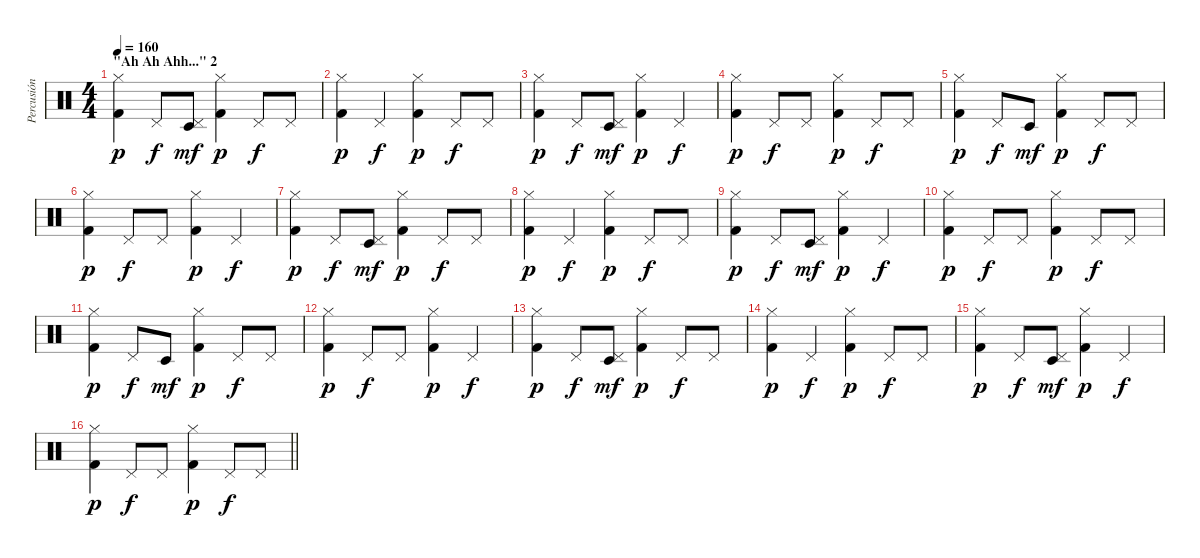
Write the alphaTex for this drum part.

\track ("Percusión" "Percusión") {instrument percussion}
\staff {score}
\articulation defaults
\ts (4 4)
\section ("" "\"Ah Ah Ahh...\" 2")
\tempo 160
\clef neutral
\ks c
("Kick (hit) 2" "Hi-Hat (closed)").4{dy p} "Pedal Hi-Hat (hit)".8{dy f} ("Timbale low (hit)" "Pedal Hi-Hat (hit)").8{dy mf} ("Kick (hit) 2" "Hi-Hat (closed)").4{dy p} "Pedal Hi-Hat (hit)".8{dy f} "Pedal Hi-Hat (hit)".8 |
("Kick (hit) 2" "Hi-Hat (closed)").4{dy p} "Pedal Hi-Hat (hit)".4{dy f} ("Kick (hit) 2" "Hi-Hat (closed)").4{dy p} "Pedal Hi-Hat (hit)".8{dy f} "Pedal Hi-Hat (hit)".8 |
("Kick (hit) 2" "Hi-Hat (closed)").4{dy p} "Pedal Hi-Hat (hit)".8{dy f} ("Timbale low (hit)" "Pedal Hi-Hat (hit)").8{dy mf} ("Kick (hit) 2" "Hi-Hat (closed)").4{dy p} "Pedal Hi-Hat (hit)".4{dy f} |
("Kick (hit) 2" "Hi-Hat (closed)").4{dy p} "Pedal Hi-Hat (hit)".8{dy f} "Pedal Hi-Hat (hit)".8 ("Kick (hit) 2" "Hi-Hat (closed)").4{dy p} "Pedal Hi-Hat (hit)".8{dy f} "Pedal Hi-Hat (hit)".8 |
("Kick (hit) 2" "Hi-Hat (closed)").4{dy p} "Pedal Hi-Hat (hit)".8{dy f} "Timbale low (hit)".8{dy mf} ("Kick (hit) 2" "Hi-Hat (closed)").4{dy p} "Pedal Hi-Hat (hit)".8{dy f} "Pedal Hi-Hat (hit)".8 |
("Kick (hit) 2" "Hi-Hat (closed)").4{dy p} "Pedal Hi-Hat (hit)".8{dy f} "Pedal Hi-Hat (hit)".8 ("Kick (hit) 2" "Hi-Hat (closed)").4{dy p} "Pedal Hi-Hat (hit)".4{dy f} |
("Kick (hit) 2" "Hi-Hat (closed)").4{dy p} "Pedal Hi-Hat (hit)".8{dy f} ("Timbale low (hit)" "Pedal Hi-Hat (hit)").8{dy mf} ("Kick (hit) 2" "Hi-Hat (closed)").4{dy p} "Pedal Hi-Hat (hit)".8{dy f} "Pedal Hi-Hat (hit)".8 |
("Kick (hit) 2" "Hi-Hat (closed)").4{dy p} "Pedal Hi-Hat (hit)".4{dy f} ("Kick (hit) 2" "Hi-Hat (closed)").4{dy p} "Pedal Hi-Hat (hit)".8{dy f} "Pedal Hi-Hat (hit)".8 |
("Kick (hit) 2" "Hi-Hat (closed)").4{dy p} "Pedal Hi-Hat (hit)".8{dy f} ("Timbale low (hit)" "Pedal Hi-Hat (hit)").8{dy mf} ("Kick (hit) 2" "Hi-Hat (closed)").4{dy p} "Pedal Hi-Hat (hit)".4{dy f} |
("Kick (hit) 2" "Hi-Hat (closed)").4{dy p} "Pedal Hi-Hat (hit)".8{dy f} "Pedal Hi-Hat (hit)".8 ("Kick (hit) 2" "Hi-Hat (closed)").4{dy p} "Pedal Hi-Hat (hit)".8{dy f} "Pedal Hi-Hat (hit)".8 |
("Kick (hit) 2" "Hi-Hat (closed)").4{dy p} "Pedal Hi-Hat (hit)".8{dy f} "Timbale low (hit)".8{dy mf} ("Kick (hit) 2" "Hi-Hat (closed)").4{dy p} "Pedal Hi-Hat (hit)".8{dy f} "Pedal Hi-Hat (hit)".8 |
("Kick (hit) 2" "Hi-Hat (closed)").4{dy p} "Pedal Hi-Hat (hit)".8{dy f} "Pedal Hi-Hat (hit)".8 ("Kick (hit) 2" "Hi-Hat (closed)").4{dy p} "Pedal Hi-Hat (hit)".4{dy f} |
("Kick (hit) 2" "Hi-Hat (closed)").4{dy p} "Pedal Hi-Hat (hit)".8{dy f} ("Timbale low (hit)" "Pedal Hi-Hat (hit)").8{dy mf} ("Kick (hit) 2" "Hi-Hat (closed)").4{dy p} "Pedal Hi-Hat (hit)".8{dy f} "Pedal Hi-Hat (hit)".8 |
("Kick (hit) 2" "Hi-Hat (closed)").4{dy p} "Pedal Hi-Hat (hit)".4{dy f} ("Kick (hit) 2" "Hi-Hat (closed)").4{dy p} "Pedal Hi-Hat (hit)".8{dy f} "Pedal Hi-Hat (hit)".8 |
("Kick (hit) 2" "Hi-Hat (closed)").4{dy p} "Pedal Hi-Hat (hit)".8{dy f} ("Timbale low (hit)" "Pedal Hi-Hat (hit)").8{dy mf} ("Kick (hit) 2" "Hi-Hat (closed)").4{dy p} "Pedal Hi-Hat (hit)".4{dy f} |
\barLineRight lightlight
("Kick (hit) 2" "Hi-Hat (closed)").4{dy p} "Pedal Hi-Hat (hit)".8{dy f} "Pedal Hi-Hat (hit)".8 ("Kick (hit) 2" "Hi-Hat (closed)").4{dy p} "Pedal Hi-Hat (hit)".8{dy f} "Pedal Hi-Hat (hit)".8
